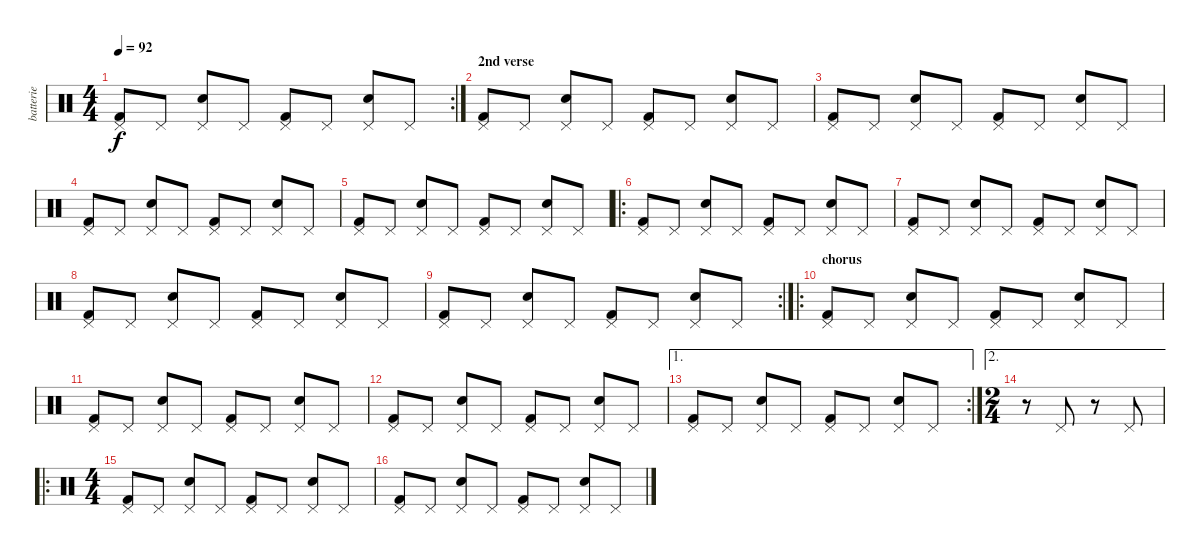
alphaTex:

\track ("batterie" "batterie") {instrument percussion}
\staff {score}
\articulation defaults
\rc 2
\ts (4 4)
\tempo 92
\clef neutral
\ks c
("Pedal Hi-Hat (hit)" "Kick (hit) 2").8{dy f} "Pedal Hi-Hat (hit)".8 ("Pedal Hi-Hat (hit)" "Snare (hit) 2").8 "Pedal Hi-Hat (hit)".8 ("Pedal Hi-Hat (hit)" "Kick (hit) 2").8 "Pedal Hi-Hat (hit)".8 ("Pedal Hi-Hat (hit)" "Snare (hit) 2").8 "Pedal Hi-Hat (hit)".8 |
\section ("" "2nd verse")
("Pedal Hi-Hat (hit)" "Kick (hit) 2").8 "Pedal Hi-Hat (hit)".8 ("Pedal Hi-Hat (hit)" "Snare (hit) 2").8 "Pedal Hi-Hat (hit)".8 ("Pedal Hi-Hat (hit)" "Kick (hit) 2").8 "Pedal Hi-Hat (hit)".8 ("Pedal Hi-Hat (hit)" "Snare (hit) 2").8 "Pedal Hi-Hat (hit)".8 |
("Pedal Hi-Hat (hit)" "Kick (hit) 2").8 "Pedal Hi-Hat (hit)".8 ("Pedal Hi-Hat (hit)" "Snare (hit) 2").8 "Pedal Hi-Hat (hit)".8 ("Pedal Hi-Hat (hit)" "Kick (hit) 2").8 "Pedal Hi-Hat (hit)".8 ("Pedal Hi-Hat (hit)" "Snare (hit) 2").8 "Pedal Hi-Hat (hit)".8 |
("Pedal Hi-Hat (hit)" "Kick (hit) 2").8 "Pedal Hi-Hat (hit)".8 ("Pedal Hi-Hat (hit)" "Snare (hit) 2").8 "Pedal Hi-Hat (hit)".8 ("Pedal Hi-Hat (hit)" "Kick (hit) 2").8 "Pedal Hi-Hat (hit)".8 ("Pedal Hi-Hat (hit)" "Snare (hit) 2").8 "Pedal Hi-Hat (hit)".8 |
("Pedal Hi-Hat (hit)" "Kick (hit) 2").8 "Pedal Hi-Hat (hit)".8 ("Pedal Hi-Hat (hit)" "Snare (hit) 2").8 "Pedal Hi-Hat (hit)".8 ("Pedal Hi-Hat (hit)" "Kick (hit) 2").8 "Pedal Hi-Hat (hit)".8 ("Pedal Hi-Hat (hit)" "Snare (hit) 2").8 "Pedal Hi-Hat (hit)".8 |
\ro
("Pedal Hi-Hat (hit)" "Kick (hit) 2").8 "Pedal Hi-Hat (hit)".8 ("Pedal Hi-Hat (hit)" "Snare (hit) 2").8 "Pedal Hi-Hat (hit)".8 ("Pedal Hi-Hat (hit)" "Kick (hit) 2").8 "Pedal Hi-Hat (hit)".8 ("Pedal Hi-Hat (hit)" "Snare (hit) 2").8 "Pedal Hi-Hat (hit)".8 |
("Pedal Hi-Hat (hit)" "Kick (hit) 2").8 "Pedal Hi-Hat (hit)".8 ("Pedal Hi-Hat (hit)" "Snare (hit) 2").8 "Pedal Hi-Hat (hit)".8 ("Pedal Hi-Hat (hit)" "Kick (hit) 2").8 "Pedal Hi-Hat (hit)".8 ("Pedal Hi-Hat (hit)" "Snare (hit) 2").8 "Pedal Hi-Hat (hit)".8 |
("Pedal Hi-Hat (hit)" "Kick (hit) 2").8 "Pedal Hi-Hat (hit)".8 ("Pedal Hi-Hat (hit)" "Snare (hit) 2").8 "Pedal Hi-Hat (hit)".8 ("Pedal Hi-Hat (hit)" "Kick (hit) 2").8 "Pedal Hi-Hat (hit)".8 ("Pedal Hi-Hat (hit)" "Snare (hit) 2").8 "Pedal Hi-Hat (hit)".8 |
\rc 2
("Pedal Hi-Hat (hit)" "Kick (hit) 2").8 "Pedal Hi-Hat (hit)".8 ("Pedal Hi-Hat (hit)" "Snare (hit) 2").8 "Pedal Hi-Hat (hit)".8 ("Pedal Hi-Hat (hit)" "Kick (hit) 2").8 "Pedal Hi-Hat (hit)".8 ("Pedal Hi-Hat (hit)" "Snare (hit) 2").8 "Pedal Hi-Hat (hit)".8 |
\ro
\section ("" "chorus")
("Pedal Hi-Hat (hit)" "Kick (hit) 2").8 "Pedal Hi-Hat (hit)".8 ("Pedal Hi-Hat (hit)" "Snare (hit) 2").8 "Pedal Hi-Hat (hit)".8 ("Pedal Hi-Hat (hit)" "Kick (hit) 2").8 "Pedal Hi-Hat (hit)".8 ("Pedal Hi-Hat (hit)" "Snare (hit) 2").8 "Pedal Hi-Hat (hit)".8 |
("Pedal Hi-Hat (hit)" "Kick (hit) 2").8 "Pedal Hi-Hat (hit)".8 ("Pedal Hi-Hat (hit)" "Snare (hit) 2").8 "Pedal Hi-Hat (hit)".8 ("Pedal Hi-Hat (hit)" "Kick (hit) 2").8 "Pedal Hi-Hat (hit)".8 ("Pedal Hi-Hat (hit)" "Snare (hit) 2").8 "Pedal Hi-Hat (hit)".8 |
("Pedal Hi-Hat (hit)" "Kick (hit) 2").8 "Pedal Hi-Hat (hit)".8 ("Pedal Hi-Hat (hit)" "Snare (hit) 2").8 "Pedal Hi-Hat (hit)".8 ("Pedal Hi-Hat (hit)" "Kick (hit) 2").8 "Pedal Hi-Hat (hit)".8 ("Pedal Hi-Hat (hit)" "Snare (hit) 2").8 "Pedal Hi-Hat (hit)".8 |
\ae 1
\rc 2
("Pedal Hi-Hat (hit)" "Kick (hit) 2").8 "Pedal Hi-Hat (hit)".8 ("Pedal Hi-Hat (hit)" "Snare (hit) 2").8 "Pedal Hi-Hat (hit)".8 ("Pedal Hi-Hat (hit)" "Kick (hit) 2").8 "Pedal Hi-Hat (hit)".8 ("Pedal Hi-Hat (hit)" "Snare (hit) 2").8 "Pedal Hi-Hat (hit)".8 |
\ae 2
\ts (2 4)
r.8 "Pedal Hi-Hat (hit)".8 r.8 "Pedal Hi-Hat (hit)".8 |
\ro
\ts (4 4)
("Pedal Hi-Hat (hit)" "Kick (hit) 2").8 "Pedal Hi-Hat (hit)".8 ("Pedal Hi-Hat (hit)" "Snare (hit) 2").8 "Pedal Hi-Hat (hit)".8 ("Pedal Hi-Hat (hit)" "Kick (hit) 2").8 "Pedal Hi-Hat (hit)".8 ("Pedal Hi-Hat (hit)" "Snare (hit) 2").8 "Pedal Hi-Hat (hit)".8 |
("Pedal Hi-Hat (hit)" "Kick (hit) 2").8 "Pedal Hi-Hat (hit)".8 ("Pedal Hi-Hat (hit)" "Snare (hit) 2").8 "Pedal Hi-Hat (hit)".8 ("Pedal Hi-Hat (hit)" "Kick (hit) 2").8 "Pedal Hi-Hat (hit)".8 ("Pedal Hi-Hat (hit)" "Snare (hit) 2").8 "Pedal Hi-Hat (hit)".8
